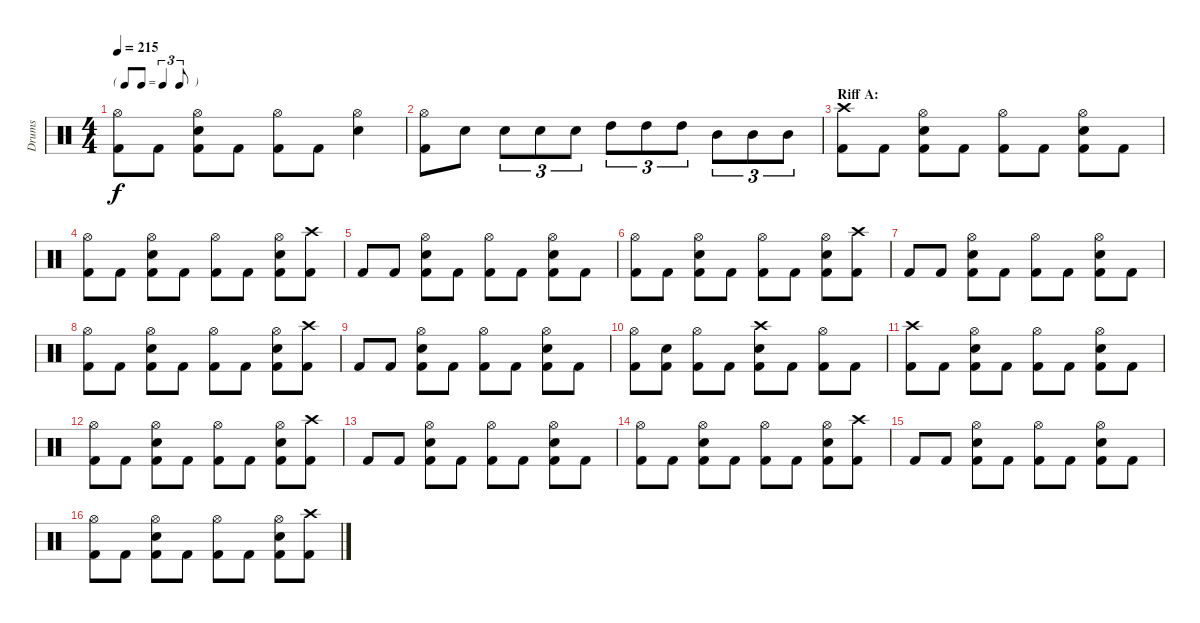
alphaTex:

\track ("Drums" "Drums") {instrument percussion}
\staff {score}
\articulation defaults
\ts (4 4)
\tf triplet8th
\tempo 215
\clef neutral
\ks c
("Hi-Hat (open)" "Kick (hit) 2").8{dy f} "Kick (hit) 2".8 ("Hi-Hat (open)" "Electric Snare (hit)" "Kick (hit) 2").8 "Kick (hit) 2".8 ("Hi-Hat (open)" "Kick (hit) 2").8 "Kick (hit) 2".8 ("Hi-Hat (open)" "Electric Snare (hit)").4 |
("Hi-Hat (open)" "Kick (hit) 2").8 "Electric Snare (hit)".8 "Electric Snare (hit)".8{tu (3 2)} "Electric Snare (hit)".8{tu (3 2)} "Electric Snare (hit)".8{tu (3 2)} "High Tom (hit)".8{tu (3 2)} "High Tom (hit)".8{tu (3 2)} "High Tom (hit)".8{tu (3 2)} "Mid Tom (hit)".8{tu (3 2)} "Mid Tom (hit)".8{tu (3 2)} "Mid Tom (hit)".8{tu (3 2)} |
\section ("" "Riff A:")
("Crash high (hit)" "Kick (hit) 2").8 "Kick (hit) 2".8 ("Hi-Hat (open)" "Electric Snare (hit)" "Kick (hit) 2").8 "Kick (hit) 2".8 ("Hi-Hat (open)" "Kick (hit) 2").8 "Kick (hit) 2".8 ("Hi-Hat (open)" "Electric Snare (hit)" "Kick (hit) 2").8 "Kick (hit) 2".8 |
("Hi-Hat (open)" "Kick (hit) 2").8 "Kick (hit) 2".8 ("Hi-Hat (open)" "Electric Snare (hit)" "Kick (hit) 2").8 "Kick (hit) 2".8 ("Hi-Hat (open)" "Kick (hit) 2").8 "Kick (hit) 2".8 ("Hi-Hat (open)" "Electric Snare (hit)" "Kick (hit) 2").8 ("Crash high (hit)" "Kick (hit) 2").8 |
"Kick (hit) 2".8 "Kick (hit) 2".8 ("Hi-Hat (open)" "Electric Snare (hit)" "Kick (hit) 2").8 "Kick (hit) 2".8 ("Hi-Hat (open)" "Kick (hit) 2").8 "Kick (hit) 2".8 ("Hi-Hat (open)" "Electric Snare (hit)" "Kick (hit) 2").8 "Kick (hit) 2".8 |
("Hi-Hat (open)" "Kick (hit) 2").8 "Kick (hit) 2".8 ("Hi-Hat (open)" "Electric Snare (hit)" "Kick (hit) 2").8 "Kick (hit) 2".8 ("Hi-Hat (open)" "Kick (hit) 2").8 "Kick (hit) 2".8 ("Hi-Hat (open)" "Electric Snare (hit)" "Kick (hit) 2").8 ("Crash high (hit)" "Kick (hit) 2").8 |
"Kick (hit) 2".8 "Kick (hit) 2".8 ("Hi-Hat (open)" "Electric Snare (hit)" "Kick (hit) 2").8 "Kick (hit) 2".8 ("Hi-Hat (open)" "Kick (hit) 2").8 "Kick (hit) 2".8 ("Hi-Hat (open)" "Electric Snare (hit)" "Kick (hit) 2").8 "Kick (hit) 2".8 |
("Hi-Hat (open)" "Kick (hit) 2").8 "Kick (hit) 2".8 ("Hi-Hat (open)" "Electric Snare (hit)" "Kick (hit) 2").8 "Kick (hit) 2".8 ("Hi-Hat (open)" "Kick (hit) 2").8 "Kick (hit) 2".8 ("Hi-Hat (open)" "Electric Snare (hit)" "Kick (hit) 2").8 ("Crash high (hit)" "Kick (hit) 2").8 |
"Kick (hit) 2".8 "Kick (hit) 2".8 ("Hi-Hat (open)" "Electric Snare (hit)" "Kick (hit) 2").8 "Kick (hit) 2".8 ("Hi-Hat (open)" "Kick (hit) 2").8 "Kick (hit) 2".8 ("Hi-Hat (open)" "Electric Snare (hit)" "Kick (hit) 2").8 "Kick (hit) 2".8 |
("Hi-Hat (open)" "Kick (hit) 2").8 ("Electric Snare (hit)" "Kick (hit) 2").8 ("Hi-Hat (open)" "Kick (hit) 2").8 "Kick (hit) 2".8 ("Crash high (hit)" "Electric Snare (hit)" "Kick (hit) 2").8 "Kick (hit) 2".8 ("Hi-Hat (open)" "Kick (hit) 2").8 "Kick (hit) 2".8 |
("Crash high (hit)" "Kick (hit) 2").8 "Kick (hit) 2".8 ("Hi-Hat (open)" "Electric Snare (hit)" "Kick (hit) 2").8 "Kick (hit) 2".8 ("Hi-Hat (open)" "Kick (hit) 2").8 "Kick (hit) 2".8 ("Hi-Hat (open)" "Electric Snare (hit)" "Kick (hit) 2").8 "Kick (hit) 2".8 |
("Hi-Hat (open)" "Kick (hit) 2").8 "Kick (hit) 2".8 ("Hi-Hat (open)" "Electric Snare (hit)" "Kick (hit) 2").8 "Kick (hit) 2".8 ("Hi-Hat (open)" "Kick (hit) 2").8 "Kick (hit) 2".8 ("Hi-Hat (open)" "Electric Snare (hit)" "Kick (hit) 2").8 ("Crash high (hit)" "Kick (hit) 2").8 |
"Kick (hit) 2".8 "Kick (hit) 2".8 ("Hi-Hat (open)" "Electric Snare (hit)" "Kick (hit) 2").8 "Kick (hit) 2".8 ("Hi-Hat (open)" "Kick (hit) 2").8 "Kick (hit) 2".8 ("Hi-Hat (open)" "Electric Snare (hit)" "Kick (hit) 2").8 "Kick (hit) 2".8 |
("Hi-Hat (open)" "Kick (hit) 2").8 "Kick (hit) 2".8 ("Hi-Hat (open)" "Electric Snare (hit)" "Kick (hit) 2").8 "Kick (hit) 2".8 ("Hi-Hat (open)" "Kick (hit) 2").8 "Kick (hit) 2".8 ("Hi-Hat (open)" "Electric Snare (hit)" "Kick (hit) 2").8 ("Crash high (hit)" "Kick (hit) 2").8 |
"Kick (hit) 2".8 "Kick (hit) 2".8 ("Hi-Hat (open)" "Electric Snare (hit)" "Kick (hit) 2").8 "Kick (hit) 2".8 ("Hi-Hat (open)" "Kick (hit) 2").8 "Kick (hit) 2".8 ("Hi-Hat (open)" "Electric Snare (hit)" "Kick (hit) 2").8 "Kick (hit) 2".8 |
("Hi-Hat (open)" "Kick (hit) 2").8 "Kick (hit) 2".8 ("Hi-Hat (open)" "Electric Snare (hit)" "Kick (hit) 2").8 "Kick (hit) 2".8 ("Hi-Hat (open)" "Kick (hit) 2").8 "Kick (hit) 2".8 ("Hi-Hat (open)" "Electric Snare (hit)" "Kick (hit) 2").8 ("Crash high (hit)" "Kick (hit) 2").8
